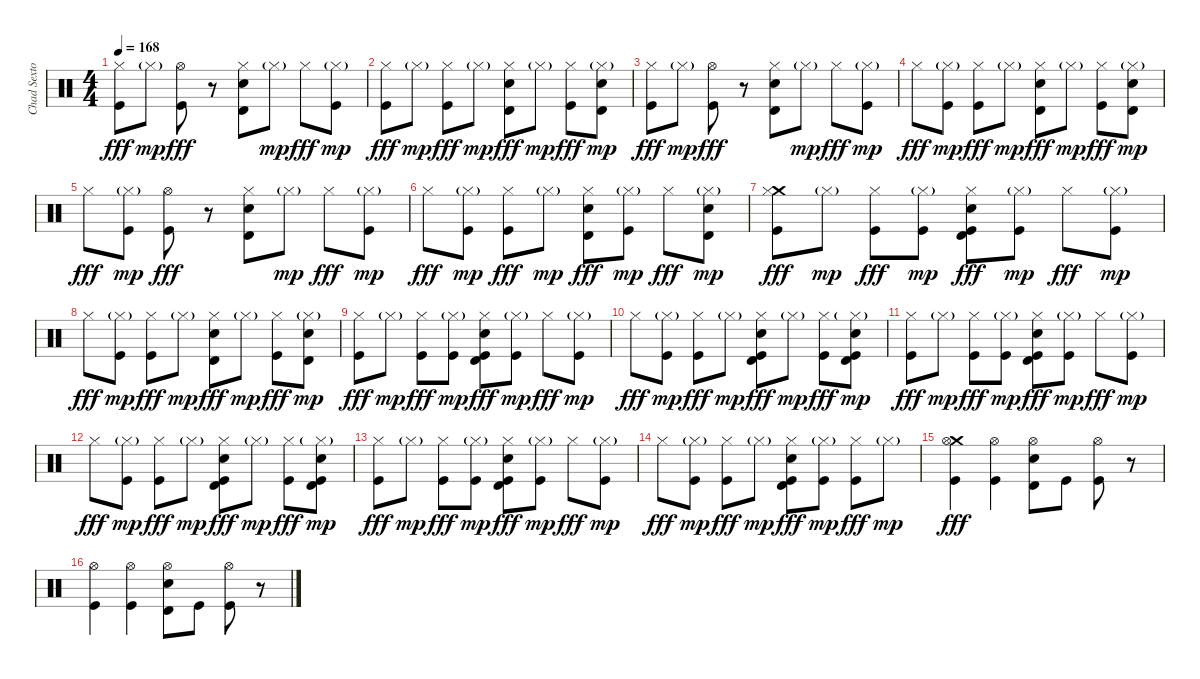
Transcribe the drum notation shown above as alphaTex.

\track ("Chad Sexton" "Chad Sexto") {instrument percussion}
\staff {score}
\articulation defaults
\ts (4 4)
\tempo 168
\clef neutral
\ks c
("Kick (hit)" "Hi-Hat (closed)").8{dy fff} "Hi-Hat (closed)"{g}.8{dy mp} ("Kick (hit)" "Hi-Hat (open)").8{dy fff} r.8 ("Electric Snare (hit)" "Timbale high (hit)" "Hi-Hat (closed)").8 "Hi-Hat (closed)"{g}.8{dy mp} "Hi-Hat (closed)".8{dy fff} ("Kick (hit)" "Hi-Hat (closed)"{g}).8{dy mp} |
("Kick (hit)" "Hi-Hat (closed)").8{dy fff} "Hi-Hat (closed)"{g}.8{dy mp} ("Kick (hit)" "Hi-Hat (closed)").8{dy fff} "Hi-Hat (closed)"{g}.8{dy mp} ("Electric Snare (hit)" "Timbale high (hit)" "Hi-Hat (closed)").8{dy fff} "Hi-Hat (closed)"{g}.8{dy mp} ("Kick (hit)" "Hi-Hat (closed)").8{dy fff} ("Timbale high (hit)" "Electric Snare (hit)" "Hi-Hat (closed)"{g}).8{dy mp} |
("Kick (hit)" "Hi-Hat (closed)").8{dy fff} "Hi-Hat (closed)"{g}.8{dy mp} ("Kick (hit)" "Hi-Hat (open)").8{dy fff} r.8 ("Electric Snare (hit)" "Timbale high (hit)" "Hi-Hat (closed)").8 "Hi-Hat (closed)"{g}.8{dy mp} "Hi-Hat (closed)".8{dy fff} ("Kick (hit)" "Hi-Hat (closed)"{g}).8{dy mp} |
"Hi-Hat (closed)".8{dy fff} ("Kick (hit)" "Hi-Hat (closed)"{g}).8{dy mp} ("Kick (hit)" "Hi-Hat (closed)").8{dy fff} "Hi-Hat (closed)"{g}.8{dy mp} ("Electric Snare (hit)" "Timbale high (hit)" "Hi-Hat (closed)").8{dy fff} "Hi-Hat (closed)"{g}.8{dy mp} ("Kick (hit)" "Hi-Hat (closed)").8{dy fff} ("Timbale high (hit)" "Electric Snare (hit)" "Hi-Hat (closed)"{g}).8{dy mp} |
"Hi-Hat (closed)".8{dy fff} ("Kick (hit)" "Hi-Hat (closed)"{g}).8{dy mp} ("Kick (hit)" "Hi-Hat (open)").8{dy fff} r.8 ("Electric Snare (hit)" "Timbale high (hit)" "Hi-Hat (closed)").8 "Hi-Hat (closed)"{g}.8{dy mp} "Hi-Hat (closed)".8{dy fff} ("Kick (hit)" "Hi-Hat (closed)"{g}).8{dy mp} |
"Hi-Hat (closed)".8{dy fff} ("Kick (hit)" "Hi-Hat (closed)"{g}).8{dy mp} ("Kick (hit)" "Hi-Hat (closed)").8{dy fff} "Hi-Hat (closed)"{g}.8{dy mp} ("Electric Snare (hit)" "Timbale high (hit)" "Hi-Hat (closed)").8{dy fff} ("Kick (hit)" "Hi-Hat (closed)"{g}).8{dy mp} "Hi-Hat (closed)".8{dy fff} ("Timbale high (hit)" "Electric Snare (hit)" "Hi-Hat (closed)"{g}).8{dy mp} |
("Crash medium (hit)" "Kick (hit)" "Hi-Hat (closed)").8{dy fff} "Hi-Hat (closed)"{g}.8{dy mp} ("Kick (hit)" "Hi-Hat (closed)").8{dy fff} ("Kick (hit)" "Hi-Hat (closed)"{g}).8{dy mp} ("Timbale high (hit)" "Electric Snare (hit)" "Kick (hit)" "Hi-Hat (closed)").8{dy fff} ("Kick (hit)" "Hi-Hat (closed)"{g}).8{dy mp} "Hi-Hat (closed)".8{dy fff} ("Kick (hit)" "Hi-Hat (closed)"{g}).8{dy mp} |
"Hi-Hat (closed)".8{dy fff} ("Kick (hit)" "Hi-Hat (closed)"{g}).8{dy mp} ("Kick (hit)" "Hi-Hat (closed)").8{dy fff} "Hi-Hat (closed)"{g}.8{dy mp} ("Electric Snare (hit)" "Timbale high (hit)" "Hi-Hat (closed)").8{dy fff} "Hi-Hat (closed)"{g}.8{dy mp} ("Kick (hit)" "Hi-Hat (closed)").8{dy fff} ("Timbale high (hit)" "Electric Snare (hit)" "Hi-Hat (closed)"{g}).8{dy mp} |
("Kick (hit)" "Hi-Hat (closed)").8{dy fff} "Hi-Hat (closed)"{g}.8{dy mp} ("Kick (hit)" "Hi-Hat (closed)").8{dy fff} ("Kick (hit)" "Hi-Hat (closed)"{g}).8{dy mp} ("Timbale high (hit)" "Electric Snare (hit)" "Kick (hit)" "Hi-Hat (closed)").8{dy fff} ("Kick (hit)" "Hi-Hat (closed)"{g}).8{dy mp} "Hi-Hat (closed)".8{dy fff} ("Kick (hit)" "Hi-Hat (closed)"{g}).8{dy mp} |
"Hi-Hat (closed)".8{dy fff} ("Kick (hit)" "Hi-Hat (closed)"{g}).8{dy mp} ("Kick (hit)" "Hi-Hat (closed)").8{dy fff} "Hi-Hat (closed)"{g}.8{dy mp} ("Timbale high (hit)" "Electric Snare (hit)" "Kick (hit)" "Hi-Hat (closed)").8{dy fff} "Hi-Hat (closed)"{g}.8{dy mp} ("Kick (hit)" "Hi-Hat (closed)").8{dy fff} ("Timbale high (hit)" "Electric Snare (hit)" "Kick (hit)" "Hi-Hat (closed)"{g}).8{dy mp} |
("Kick (hit)" "Hi-Hat (closed)").8{dy fff} "Hi-Hat (closed)"{g}.8{dy mp} ("Kick (hit)" "Hi-Hat (closed)").8{dy fff} ("Kick (hit)" "Hi-Hat (closed)"{g}).8{dy mp} ("Timbale high (hit)" "Electric Snare (hit)" "Kick (hit)" "Hi-Hat (closed)").8{dy fff} ("Kick (hit)" "Hi-Hat (closed)"{g}).8{dy mp} "Hi-Hat (closed)".8{dy fff} ("Kick (hit)" "Hi-Hat (closed)"{g}).8{dy mp} |
"Hi-Hat (closed)".8{dy fff} ("Kick (hit)" "Hi-Hat (closed)"{g}).8{dy mp} ("Kick (hit)" "Hi-Hat (closed)").8{dy fff} "Hi-Hat (closed)"{g}.8{dy mp} ("Timbale high (hit)" "Electric Snare (hit)" "Kick (hit)" "Hi-Hat (closed)").8{dy fff} "Hi-Hat (closed)"{g}.8{dy mp} ("Kick (hit)" "Hi-Hat (closed)").8{dy fff} ("Timbale high (hit)" "Electric Snare (hit)" "Kick (hit)" "Hi-Hat (closed)"{g}).8{dy mp} |
("Kick (hit)" "Hi-Hat (closed)").8{dy fff} "Hi-Hat (closed)"{g}.8{dy mp} ("Kick (hit)" "Hi-Hat (closed)").8{dy fff} ("Kick (hit)" "Hi-Hat (closed)"{g}).8{dy mp} ("Timbale high (hit)" "Electric Snare (hit)" "Kick (hit)" "Hi-Hat (closed)").8{dy fff} ("Kick (hit)" "Hi-Hat (closed)"{g}).8{dy mp} "Hi-Hat (closed)".8{dy fff} ("Kick (hit)" "Hi-Hat (closed)"{g}).8{dy mp} |
"Hi-Hat (closed)".8{dy fff} ("Kick (hit)" "Hi-Hat (closed)"{g}).8{dy mp} ("Kick (hit)" "Hi-Hat (closed)").8{dy fff} "Hi-Hat (closed)"{g}.8{dy mp} ("Timbale high (hit)" "Electric Snare (hit)" "Kick (hit)" "Hi-Hat (closed)").8{dy fff} ("Kick (hit)" "Hi-Hat (closed)"{g}).8{dy mp} ("Kick (hit)" "Hi-Hat (closed)").8{dy fff} "Hi-Hat (closed)"{g}.8{dy mp} |
("Crash medium (hit)" "Hi-Hat (open)" "Kick (hit)").4{dy fff} ("Hi-Hat (open)" "Kick (hit)").4 ("Hi-Hat (open)" "Electric Snare (hit)" "Timbale high (hit)").8 "Kick (hit)".8 ("Hi-Hat (open)" "Kick (hit)").8 r.8 |
("Hi-Hat (open)" "Kick (hit)").4 ("Hi-Hat (open)" "Kick (hit)").4 ("Hi-Hat (open)" "Electric Snare (hit)" "Timbale high (hit)").8 "Kick (hit)".8 ("Hi-Hat (open)" "Kick (hit)").8 r.8
